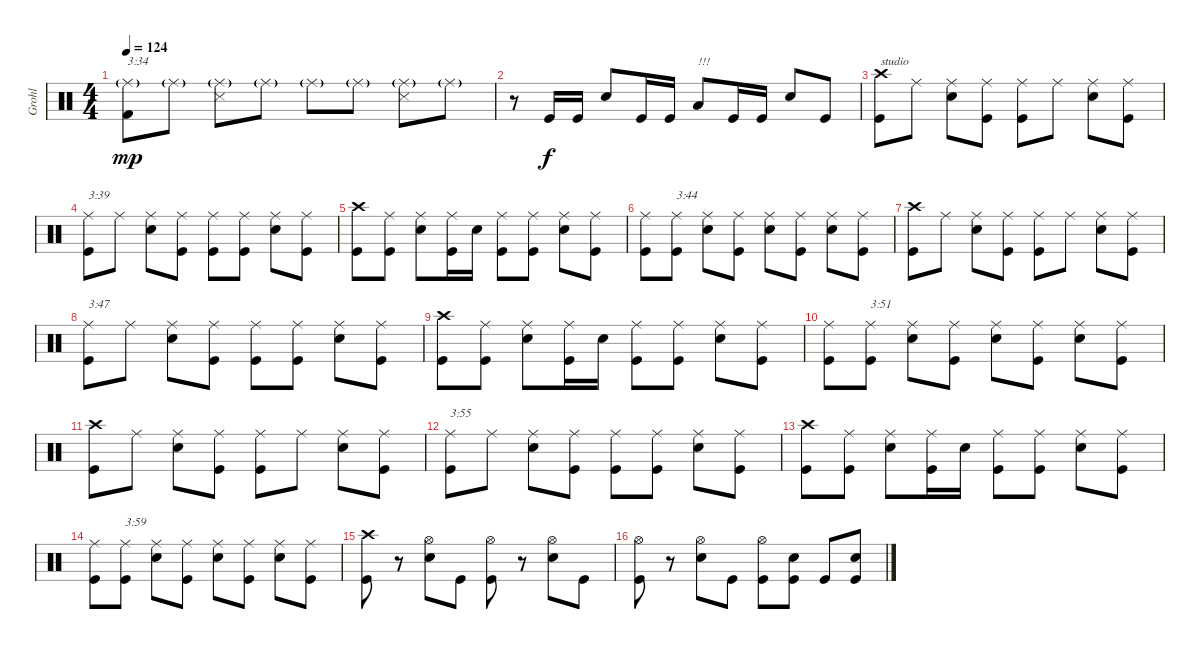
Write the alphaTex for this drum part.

\track ("Grohl" "Grohl") {instrument percussion}
\staff {score}
\articulation defaults
\ts (4 4)
\tempo 124
\clef neutral
\ks c
("Ride (middle)"{g} "Kick (hit) 2").8{txt "3:34" dy mp} "Ride (middle)"{g}.8 ("Ride (middle)"{g} "Snare (side stick) 3").8 "Ride (middle)"{g}.8 "Ride (middle)"{g}.8 "Ride (middle)"{g}.8 ("Ride (middle)"{g} "Snare (side stick) 3").8 "Ride (middle)"{g}.8 |
r.8 "Kick (hit)".16{dy f} "Kick (hit)".16 "Snare (hit) 2".8 "Kick (hit)".16 "Kick (hit)".16 "Low Tom (hit)".8{txt "!!!"} "Kick (hit)".16 "Kick (hit)".16 "Snare (hit) 2".8 "Kick (hit)".8 |
("Crash high (hit)" "Kick (hit)").8{txt "studio"} "Ride (middle)".8 ("Ride (middle)" "Snare (hit) 2").8 ("Ride (middle)" "Kick (hit)").8 ("Ride (middle)" "Kick (hit)").8 "Ride (middle)".8 ("Ride (middle)" "Snare (hit) 2").8 ("Ride (middle)" "Kick (hit)").8 |
("Ride (middle)" "Kick (hit)").8{txt "3:39"} "Ride (middle)".8 ("Ride (middle)" "Snare (hit) 2").8 ("Ride (middle)" "Kick (hit)").8 ("Ride (middle)" "Kick (hit)").8 ("Ride (middle)" "Kick (hit)").8 ("Ride (middle)" "Snare (hit) 2").8 ("Ride (middle)" "Kick (hit)").8 |
("Crash high (hit)" "Kick (hit)").8 ("Ride (middle)" "Kick (hit)").8 ("Ride (middle)" "Snare (hit) 2").8 ("Ride (middle)" "Kick (hit)").16 "Snare (hit) 2".16 ("Ride (middle)" "Kick (hit)").8 ("Ride (middle)" "Kick (hit)").8 ("Ride (middle)" "Snare (hit) 2").8 ("Ride (middle)" "Kick (hit)").8 |
("Ride (middle)" "Kick (hit)").8 ("Ride (middle)" "Kick (hit)").8{txt "3:44"} ("Ride (middle)" "Snare (hit) 2").8 ("Ride (middle)" "Kick (hit)").8 ("Ride (middle)" "Snare (hit) 2").8 ("Ride (middle)" "Kick (hit)").8 ("Ride (middle)" "Snare (hit) 2").8 ("Ride (middle)" "Kick (hit)").8 |
("Crash high (hit)" "Kick (hit)").8 "Ride (middle)".8 ("Ride (middle)" "Snare (hit) 2").8 ("Ride (middle)" "Kick (hit)").8 ("Ride (middle)" "Kick (hit)").8 "Ride (middle)".8 ("Ride (middle)" "Snare (hit) 2").8 ("Ride (middle)" "Kick (hit)").8 |
("Ride (middle)" "Kick (hit)").8{txt "3:47"} "Ride (middle)".8 ("Ride (middle)" "Snare (hit) 2").8 ("Ride (middle)" "Kick (hit)").8 ("Ride (middle)" "Kick (hit)").8 ("Ride (middle)" "Kick (hit)").8 ("Ride (middle)" "Snare (hit) 2").8 ("Ride (middle)" "Kick (hit)").8 |
("Crash high (hit)" "Kick (hit)").8 ("Ride (middle)" "Kick (hit)").8 ("Ride (middle)" "Snare (hit) 2").8 ("Ride (middle)" "Kick (hit)").16 "Snare (hit) 2".16 ("Ride (middle)" "Kick (hit)").8 ("Ride (middle)" "Kick (hit)").8 ("Ride (middle)" "Snare (hit) 2").8 ("Ride (middle)" "Kick (hit)").8 |
("Ride (middle)" "Kick (hit)").8 ("Ride (middle)" "Kick (hit)").8{txt "3:51"} ("Ride (middle)" "Snare (hit) 2").8 ("Ride (middle)" "Kick (hit)").8 ("Ride (middle)" "Snare (hit) 2").8 ("Ride (middle)" "Kick (hit)").8 ("Ride (middle)" "Snare (hit) 2").8 ("Ride (middle)" "Kick (hit)").8 |
("Crash high (hit)" "Kick (hit)").8 "Ride (middle)".8 ("Ride (middle)" "Snare (hit) 2").8 ("Ride (middle)" "Kick (hit)").8 ("Ride (middle)" "Kick (hit)").8 "Ride (middle)".8 ("Ride (middle)" "Snare (hit) 2").8 ("Ride (middle)" "Kick (hit)").8 |
("Ride (middle)" "Kick (hit)").8{txt "3:55"} "Ride (middle)".8 ("Ride (middle)" "Snare (hit) 2").8 ("Ride (middle)" "Kick (hit)").8 ("Ride (middle)" "Kick (hit)").8 ("Ride (middle)" "Kick (hit)").8 ("Ride (middle)" "Snare (hit) 2").8 ("Ride (middle)" "Kick (hit)").8 |
("Crash high (hit)" "Kick (hit)").8 ("Ride (middle)" "Kick (hit)").8 ("Ride (middle)" "Snare (hit) 2").8 ("Ride (middle)" "Kick (hit)").16 "Snare (hit) 2".16 ("Ride (middle)" "Kick (hit)").8 ("Ride (middle)" "Kick (hit)").8 ("Ride (middle)" "Snare (hit) 2").8 ("Ride (middle)" "Kick (hit)").8 |
("Ride (middle)" "Kick (hit)").8 ("Ride (middle)" "Kick (hit)").8{txt "3:59"} ("Ride (middle)" "Snare (hit) 2").8 ("Ride (middle)" "Kick (hit)").8 ("Ride (middle)" "Snare (hit) 2").8 ("Ride (middle)" "Kick (hit)").8 ("Ride (middle)" "Snare (hit) 2").8 ("Ride (middle)" "Kick (hit)").8 |
("Crash high (hit)" "Kick (hit)").8 r.8 ("Hi-Hat (open)" "Snare (hit) 2").8 "Kick (hit)".8 ("Hi-Hat (open)" "Kick (hit)").8 r.8 ("Hi-Hat (open)" "Snare (hit) 2").8 "Kick (hit)".8 |
("Hi-Hat (open)" "Kick (hit)").8 r.8 ("Hi-Hat (open)" "Snare (hit) 2").8 "Kick (hit)".8 ("Hi-Hat (open)" "Kick (hit)").8 ("Snare (hit) 2" "Kick (hit)").8 "Kick (hit)".8 ("Snare (hit) 2" "Kick (hit)").8
